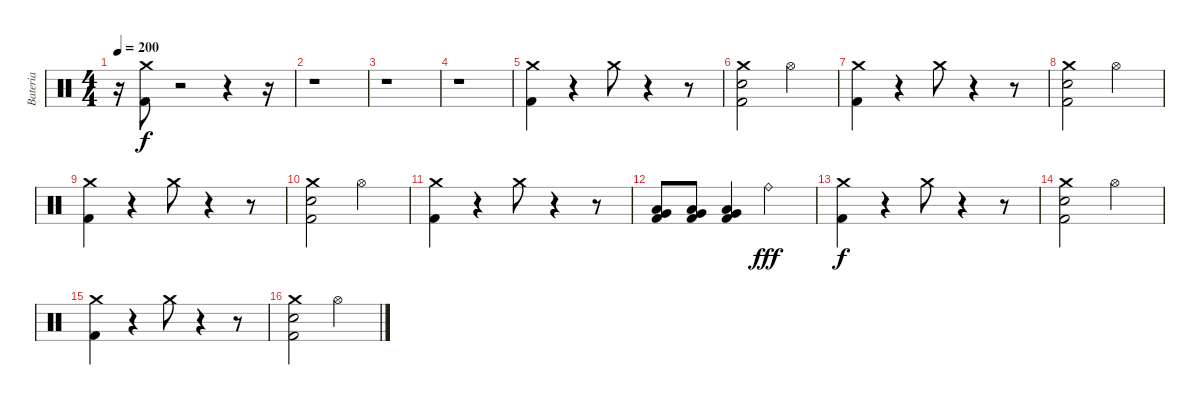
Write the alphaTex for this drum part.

\track ("Bateria" "Bateria") {instrument percussion}
\staff {score}
\articulation defaults
\ts (4 4)
\tempo 200
\clef neutral
\ks c
r.16{dy f} ("Crash medium (hit)" "Kick (hit) 2").8 r.2 r.4 r.16 |
r.1 |
r.1 |
r.1 |
("Crash medium (hit)" "Kick (hit) 2").4 r.4 "Crash medium (hit)".8 r.4 r.8 |
("Crash medium (hit)" "Electric Snare (hit)" "Kick (hit) 2").2 "Hi-Hat (open)".2 |
("Crash medium (hit)" "Kick (hit) 2").4 r.4 "Crash medium (hit)".8 r.4 r.8 |
("Crash medium (hit)" "Electric Snare (hit)" "Kick (hit) 2").2 "Hi-Hat (open)".2 |
("Crash medium (hit)" "Kick (hit) 2").4 r.4 "Crash medium (hit)".8 r.4 r.8 |
("Crash medium (hit)" "Electric Snare (hit)" "Kick (hit) 2").2 "Hi-Hat (open)".2 |
("Crash medium (hit)" "Kick (hit) 2").4 r.4 "Crash medium (hit)".8 r.4 r.8 |
("Very Low Tom (hit)" "Low Floor Tom (hit)" "Kick (hit) 2").8 ("Very Low Tom (hit)" "Low Floor Tom (hit)" "Kick (hit) 2").8 ("Very Low Tom (hit)" "Low Floor Tom (hit)" "Kick (hit) 2").4 "Ride (bell)".2{dy fff} |
("Crash medium (hit)" "Kick (hit) 2").4{dy f} r.4 "Crash medium (hit)".8 r.4 r.8 |
("Crash medium (hit)" "Electric Snare (hit)" "Kick (hit) 2").2 "Hi-Hat (open)".2 |
("Crash medium (hit)" "Kick (hit) 2").4 r.4 "Crash medium (hit)".8 r.4 r.8 |
("Crash medium (hit)" "Electric Snare (hit)" "Kick (hit) 2").2 "Hi-Hat (open)".2
